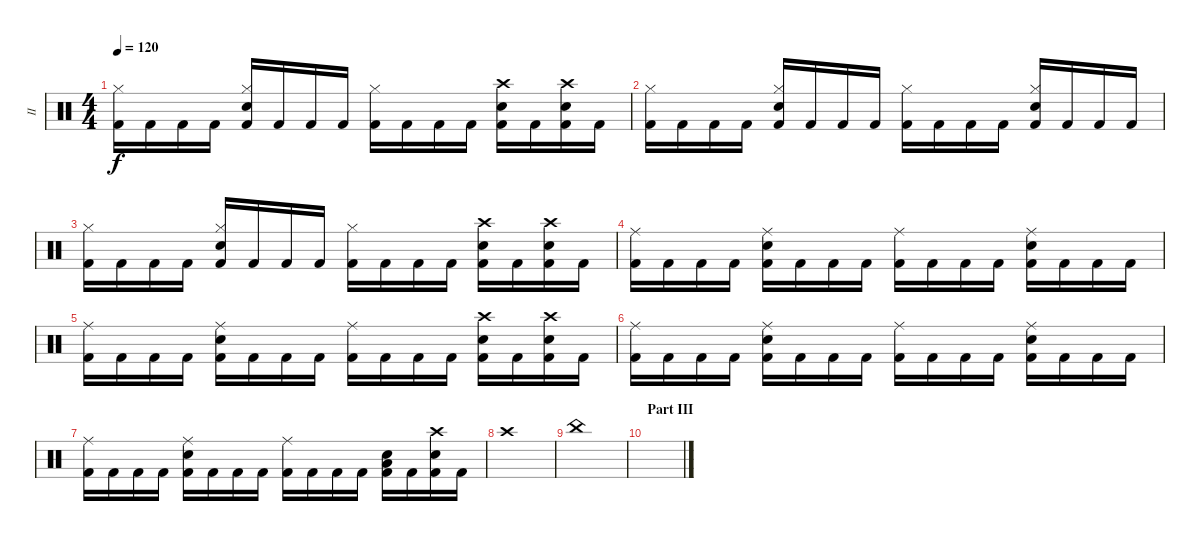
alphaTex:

\track ("II" "II") {instrument percussion}
\staff {score}
\articulation defaults
\ts (4 4)
\tempo 120
\clef neutral
\ks c
("Kick (hit) 2" "Hi-Hat (closed)").16{dy f} "Kick (hit) 2".16 "Kick (hit) 2".16 "Kick (hit) 2".16 ("Kick (hit) 2" "Hi-Hat (closed)" "Snare (hit) 2").16 "Kick (hit) 2".16 "Kick (hit) 2".16 "Kick (hit) 2".16 ("Kick (hit) 2" "Hi-Hat (closed)").16 "Kick (hit) 2".16 "Kick (hit) 2".16 "Kick (hit) 2".16 ("Kick (hit) 2" "Crash high (hit)" "Snare (hit) 2").16 "Kick (hit) 2".16 ("Kick (hit) 2" "Crash high (hit)" "Snare (hit) 2").16 "Kick (hit) 2".16 |
("Kick (hit) 2" "Hi-Hat (closed)").16 "Kick (hit) 2".16 "Kick (hit) 2".16 "Kick (hit) 2".16 ("Kick (hit) 2" "Hi-Hat (closed)" "Snare (hit) 2").16 "Kick (hit) 2".16 "Kick (hit) 2".16 "Kick (hit) 2".16 ("Kick (hit) 2" "Hi-Hat (closed)").16 "Kick (hit) 2".16 "Kick (hit) 2".16 "Kick (hit) 2".16 ("Kick (hit) 2" "Hi-Hat (closed)" "Snare (hit) 2").16 "Kick (hit) 2".16 "Kick (hit) 2".16 "Kick (hit) 2".16 |
("Kick (hit) 2" "Hi-Hat (closed)").16 "Kick (hit) 2".16 "Kick (hit) 2".16 "Kick (hit) 2".16 ("Kick (hit) 2" "Hi-Hat (closed)" "Snare (hit) 2").16 "Kick (hit) 2".16 "Kick (hit) 2".16 "Kick (hit) 2".16 ("Kick (hit) 2" "Hi-Hat (closed)").16 "Kick (hit) 2".16 "Kick (hit) 2".16 "Kick (hit) 2".16 ("Kick (hit) 2" "Crash high (hit)" "Snare (hit) 2").16 "Kick (hit) 2".16 ("Kick (hit) 2" "Crash high (hit)" "Snare (hit) 2").16 "Kick (hit) 2".16 |
("Kick (hit) 2" "Ride (middle)").16 "Kick (hit) 2".16 "Kick (hit) 2".16 "Kick (hit) 2".16 ("Kick (hit) 2" "Ride (middle)" "Snare (hit) 2").16 "Kick (hit) 2".16 "Kick (hit) 2".16 "Kick (hit) 2".16 ("Kick (hit) 2" "Ride (middle)").16 "Kick (hit) 2".16 "Kick (hit) 2".16 "Kick (hit) 2".16 ("Kick (hit) 2" "Ride (middle)" "Snare (hit) 2").16 "Kick (hit) 2".16 "Kick (hit) 2".16 "Kick (hit) 2".16 |
("Kick (hit) 2" "Ride (middle)").16 "Kick (hit) 2".16 "Kick (hit) 2".16 "Kick (hit) 2".16 ("Kick (hit) 2" "Ride (middle)" "Snare (hit) 2").16 "Kick (hit) 2".16 "Kick (hit) 2".16 "Kick (hit) 2".16 ("Kick (hit) 2" "Ride (middle)").16 "Kick (hit) 2".16 "Kick (hit) 2".16 "Kick (hit) 2".16 ("Kick (hit) 2" "Crash high (hit)" "Snare (hit) 2").16 "Kick (hit) 2".16 ("Kick (hit) 2" "Crash high (hit)" "Snare (hit) 2").16 "Kick (hit) 2".16 |
("Kick (hit) 2" "Ride (middle)").16 "Kick (hit) 2".16 "Kick (hit) 2".16 "Kick (hit) 2".16 ("Kick (hit) 2" "Ride (middle)" "Snare (hit) 2").16 "Kick (hit) 2".16 "Kick (hit) 2".16 "Kick (hit) 2".16 ("Kick (hit) 2" "Ride (middle)").16 "Kick (hit) 2".16 "Kick (hit) 2".16 "Kick (hit) 2".16 ("Kick (hit) 2" "Ride (middle)" "Snare (hit) 2").16 "Kick (hit) 2".16 "Kick (hit) 2".16 "Kick (hit) 2".16 |
("Kick (hit) 2" "Ride (middle)").16 "Kick (hit) 2".16 "Kick (hit) 2".16 "Kick (hit) 2".16 ("Kick (hit) 2" "Ride (middle)" "Snare (hit) 2").16 "Kick (hit) 2".16 "Kick (hit) 2".16 "Kick (hit) 2".16 ("Kick (hit) 2" "Ride (middle)").16 "Kick (hit) 2".16 "Kick (hit) 2".16 "Kick (hit) 2".16 ("Kick (hit) 2" "Low Floor Tom (hit)" "Snare (hit) 2").16 "Kick (hit) 2".16 ("Kick (hit) 2" "Crash high (hit)" "Snare (hit) 2").16 "Kick (hit) 2".16 |
"Crash high (hit)".1 |
"China (hit)".1 |
\section ("" "Part III")
